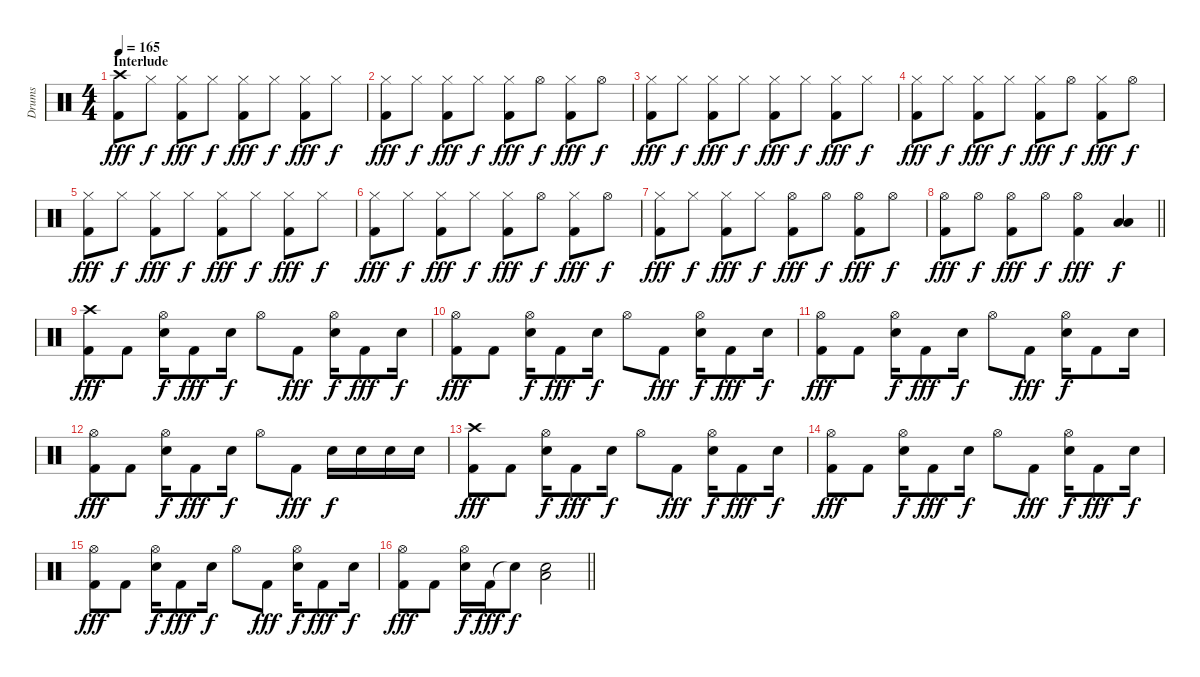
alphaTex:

\track ("Drums" "Drums") {instrument percussion}
\staff {score}
\articulation defaults
\ts (4 4)
\section ("" "Interlude")
\tempo 165
\clef neutral
\ks c
("Crash high (hit)" "Kick (hit) 2").8{dy fff} "Hi-Hat (closed)".8{dy f} ("Hi-Hat (closed)" "Kick (hit) 2").8{dy fff} "Hi-Hat (closed)".8{dy f} ("Hi-Hat (closed)" "Kick (hit) 2").8{dy fff} "Hi-Hat (closed)".8{dy f} ("Hi-Hat (closed)" "Kick (hit) 2").8{dy fff} "Hi-Hat (closed)".8{dy f} |
("Hi-Hat (closed)" "Kick (hit) 2").8{dy fff} "Hi-Hat (closed)".8{dy f} ("Hi-Hat (closed)" "Kick (hit) 2").8{dy fff} "Hi-Hat (closed)".8{dy f} ("Hi-Hat (closed)" "Kick (hit) 2").8{dy fff} "Hi-Hat (open)".8{dy f} ("Hi-Hat (closed)" "Kick (hit) 2").8{dy fff} "Hi-Hat (open)".8{dy f} |
("Hi-Hat (closed)" "Kick (hit) 2").8{dy fff} "Hi-Hat (closed)".8{dy f} ("Hi-Hat (closed)" "Kick (hit) 2").8{dy fff} "Hi-Hat (closed)".8{dy f} ("Hi-Hat (closed)" "Kick (hit) 2").8{dy fff} "Hi-Hat (closed)".8{dy f} ("Hi-Hat (closed)" "Kick (hit) 2").8{dy fff} "Hi-Hat (closed)".8{dy f} |
("Hi-Hat (closed)" "Kick (hit) 2").8{dy fff} "Hi-Hat (closed)".8{dy f} ("Hi-Hat (closed)" "Kick (hit) 2").8{dy fff} "Hi-Hat (closed)".8{dy f} ("Hi-Hat (closed)" "Kick (hit) 2").8{dy fff} "Hi-Hat (open)".8{dy f} ("Hi-Hat (closed)" "Kick (hit) 2").8{dy fff} "Hi-Hat (open)".8{dy f} |
("Hi-Hat (closed)" "Kick (hit) 2").8{dy fff} "Hi-Hat (closed)".8{dy f} ("Hi-Hat (closed)" "Kick (hit) 2").8{dy fff} "Hi-Hat (closed)".8{dy f} ("Hi-Hat (closed)" "Kick (hit) 2").8{dy fff} "Hi-Hat (closed)".8{dy f} ("Hi-Hat (closed)" "Kick (hit) 2").8{dy fff} "Hi-Hat (closed)".8{dy f} |
("Hi-Hat (closed)" "Kick (hit) 2").8{dy fff} "Hi-Hat (closed)".8{dy f} ("Hi-Hat (closed)" "Kick (hit) 2").8{dy fff} "Hi-Hat (closed)".8{dy f} ("Hi-Hat (closed)" "Kick (hit) 2").8{dy fff} "Hi-Hat (open)".8{dy f} ("Hi-Hat (closed)" "Kick (hit) 2").8{dy fff} "Hi-Hat (open)".8{dy f} |
("Hi-Hat (closed)" "Kick (hit) 2").8{dy fff} "Hi-Hat (closed)".8{dy f} ("Hi-Hat (closed)" "Kick (hit) 2").8{dy fff} "Hi-Hat (closed)".8{dy f} ("Hi-Hat (open)" "Kick (hit) 2").8{dy fff} "Hi-Hat (open)".8{dy f} ("Hi-Hat (open)" "Kick (hit) 2").8{dy fff} "Hi-Hat (open)".8{dy f} |
\barLineRight lightlight
("Hi-Hat (open)" "Kick (hit) 2").8{dy fff} "Hi-Hat (open)".8{dy f} ("Hi-Hat (open)" "Kick (hit) 2").8{dy fff} "Hi-Hat (open)".8{dy f} ("Hi-Hat (open)" "Kick (hit) 2").4{dy fff} ("Low Tom (hit)" "Low Floor Tom (hit)").4{dy f} |
("Crash high (hit)" "Kick (hit) 2").8{dy fff} "Kick (hit) 2".8 ("Hi-Hat (open)" "Snare (hit) 2").16{dy f} "Kick (hit) 2".8{dy fff} "Snare (hit) 2".16{dy f} "Hi-Hat (open)".8 "Kick (hit) 2".8{dy fff} ("Hi-Hat (open)" "Snare (hit) 2").16{dy f} "Kick (hit) 2".8{dy fff} "Snare (hit) 2".16{dy f} |
("Hi-Hat (open)" "Kick (hit) 2").8{dy fff} "Kick (hit) 2".8 ("Hi-Hat (open)" "Snare (hit) 2").16{dy f} "Kick (hit) 2".8{dy fff} "Snare (hit) 2".16{dy f} "Hi-Hat (open)".8 "Kick (hit) 2".8{dy fff} ("Hi-Hat (open)" "Snare (hit) 2").16{dy f} "Kick (hit) 2".8{dy fff} "Snare (hit) 2".16{dy f} |
("Hi-Hat (open)" "Kick (hit) 2").8{dy fff} "Kick (hit) 2".8 ("Hi-Hat (open)" "Snare (hit) 2").16{dy f} "Kick (hit) 2".8{dy fff} "Snare (hit) 2".16{dy f} "Hi-Hat (open)".8 "Kick (hit) 2".8{dy fff} ("Hi-Hat (open)" "Snare (hit) 2").16{dy f} "Kick (hit) 2".8 "Snare (hit) 2".16 |
("Hi-Hat (open)" "Kick (hit) 2").8{dy fff} "Kick (hit) 2".8 ("Hi-Hat (open)" "Snare (hit) 2").16{dy f} "Kick (hit) 2".8{dy fff} "Snare (hit) 2".16{dy f} "Hi-Hat (open)".8 "Kick (hit) 2".8{dy fff} "Snare (hit) 2".16{dy f} "Snare (hit) 2".16 "Snare (hit) 2".16 "Snare (hit) 2".16 |
("Crash high (hit)" "Kick (hit) 2").8{dy fff} "Kick (hit) 2".8 ("Hi-Hat (open)" "Snare (hit) 2").16{dy f} "Kick (hit) 2".8{dy fff} "Snare (hit) 2".16{dy f} "Hi-Hat (open)".8 "Kick (hit) 2".8{dy fff} ("Hi-Hat (open)" "Snare (hit) 2").16{dy f} "Kick (hit) 2".8{dy fff} "Snare (hit) 2".16{dy f} |
("Hi-Hat (open)" "Kick (hit) 2").8{dy fff} "Kick (hit) 2".8 ("Hi-Hat (open)" "Snare (hit) 2").16{dy f} "Kick (hit) 2".8{dy fff} "Snare (hit) 2".16{dy f} "Hi-Hat (open)".8 "Kick (hit) 2".8{dy fff} ("Hi-Hat (open)" "Snare (hit) 2").16{dy f} "Kick (hit) 2".8{dy fff} "Snare (hit) 2".16{dy f} |
("Hi-Hat (open)" "Kick (hit) 2").8{dy fff} "Kick (hit) 2".8 ("Hi-Hat (open)" "Snare (hit) 2").16{dy f} "Kick (hit) 2".8{dy fff} "Snare (hit) 2".16{dy f} "Hi-Hat (open)".8 "Kick (hit) 2".8{dy fff} ("Hi-Hat (open)" "Snare (hit) 2").16{dy f} "Kick (hit) 2".8{dy fff} "Snare (hit) 2".16{dy f} |
\barLineRight lightlight
("Hi-Hat (open)" "Kick (hit) 2").8{dy fff} "Kick (hit) 2".8 ("Hi-Hat (open)" "Snare (hit) 2").16{dy f} "Kick (hit) 2".16{dy fff} "Snare (hit)"{t}.8{dy f} ("Low Floor Tom (hit)" "Snare (hit) 2").2
